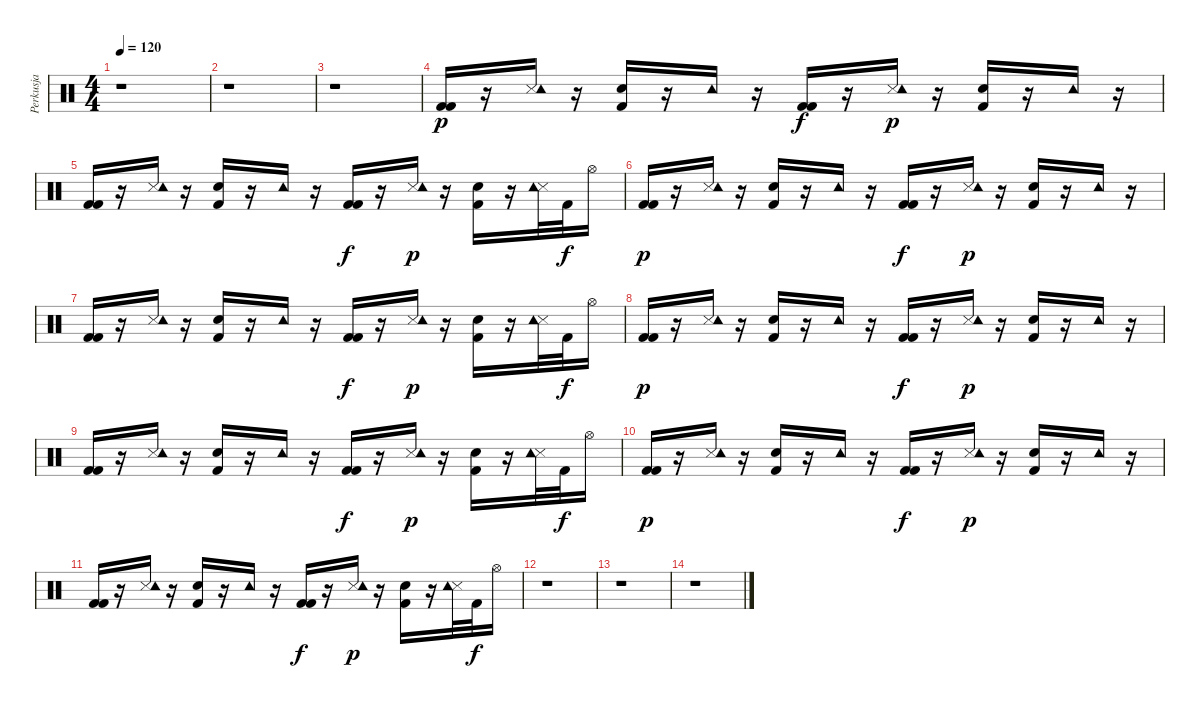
\track ("Perkusja" "Perkusja") {instrument percussion}
\staff {score}
\articulation defaults
\ts (4 4)
\tempo 120
\clef neutral
\ks c
r.1{dy f} |
r.1 |
r.1 |
("Kick (hit) 2" "Kick (hit) 2").16{dy p} r.16 ("Snare (side stick) 3" "Tambourine (hit)").16 r.16 ("Electric Snare (hit)" "Kick (hit) 2").16 r.16 "Tambourine (hit)".16 r.16 ("Kick (hit) 2" "Kick (hit) 2").16{dy f} r.16 ("Snare (side stick) 3" "Tambourine (hit)").16{dy p} r.16 ("Electric Snare (hit)" "Kick (hit) 2").16 r.16 "Tambourine (hit)".16 r.16 |
("Kick (hit) 2" "Kick (hit) 2").16 r.16 ("Snare (side stick) 3" "Tambourine (hit)").16 r.16 ("Electric Snare (hit)" "Kick (hit) 2").16 r.16 "Tambourine (hit)".16 r.16 ("Kick (hit) 2" "Kick (hit) 2").16{dy f} r.16 ("Snare (side stick) 3" "Tambourine (hit)").16{dy p} r.16 ("Electric Snare (hit)" "Kick (hit) 2").16 r.16 ("Snare (side stick) 3" "Tambourine (hit)").32 "Kick (hit) 2".32{dy f} "Hi-Hat (open)".16 |
("Kick (hit) 2" "Kick (hit) 2").16{dy p} r.16 ("Snare (side stick) 3" "Tambourine (hit)").16 r.16 ("Electric Snare (hit)" "Kick (hit) 2").16 r.16 "Tambourine (hit)".16 r.16 ("Kick (hit) 2" "Kick (hit) 2").16{dy f} r.16 ("Snare (side stick) 3" "Tambourine (hit)").16{dy p} r.16 ("Electric Snare (hit)" "Kick (hit) 2").16 r.16 "Tambourine (hit)".16 r.16 |
("Kick (hit) 2" "Kick (hit) 2").16 r.16 ("Snare (side stick) 3" "Tambourine (hit)").16 r.16 ("Electric Snare (hit)" "Kick (hit) 2").16 r.16 "Tambourine (hit)".16 r.16 ("Kick (hit) 2" "Kick (hit) 2").16{dy f} r.16 ("Snare (side stick) 3" "Tambourine (hit)").16{dy p} r.16 ("Electric Snare (hit)" "Kick (hit) 2").16 r.16 ("Snare (side stick) 3" "Tambourine (hit)").32 "Kick (hit) 2".32{dy f} "Hi-Hat (open)".16 |
("Kick (hit) 2" "Kick (hit) 2").16{dy p} r.16 ("Snare (side stick) 3" "Tambourine (hit)").16 r.16 ("Electric Snare (hit)" "Kick (hit) 2").16 r.16 "Tambourine (hit)".16 r.16 ("Kick (hit) 2" "Kick (hit) 2").16{dy f} r.16 ("Snare (side stick) 3" "Tambourine (hit)").16{dy p} r.16 ("Electric Snare (hit)" "Kick (hit) 2").16 r.16 "Tambourine (hit)".16 r.16 |
("Kick (hit) 2" "Kick (hit) 2").16 r.16 ("Snare (side stick) 3" "Tambourine (hit)").16 r.16 ("Electric Snare (hit)" "Kick (hit) 2").16 r.16 "Tambourine (hit)".16 r.16 ("Kick (hit) 2" "Kick (hit) 2").16{dy f} r.16 ("Snare (side stick) 3" "Tambourine (hit)").16{dy p} r.16 ("Electric Snare (hit)" "Kick (hit) 2").16 r.16 ("Snare (side stick) 3" "Tambourine (hit)").32 "Kick (hit) 2".32{dy f} "Hi-Hat (open)".16 |
("Kick (hit) 2" "Kick (hit) 2").16{dy p} r.16 ("Snare (side stick) 3" "Tambourine (hit)").16 r.16 ("Electric Snare (hit)" "Kick (hit) 2").16 r.16 "Tambourine (hit)".16 r.16 ("Kick (hit) 2" "Kick (hit) 2").16{dy f} r.16 ("Snare (side stick) 3" "Tambourine (hit)").16{dy p} r.16 ("Electric Snare (hit)" "Kick (hit) 2").16 r.16 "Tambourine (hit)".16 r.16 |
("Kick (hit) 2" "Kick (hit) 2").16 r.16 ("Snare (side stick) 3" "Tambourine (hit)").16 r.16 ("Electric Snare (hit)" "Kick (hit) 2").16 r.16 "Tambourine (hit)".16 r.16 ("Kick (hit) 2" "Kick (hit) 2").16{dy f} r.16 ("Snare (side stick) 3" "Tambourine (hit)").16{dy p} r.16 ("Electric Snare (hit)" "Kick (hit) 2").16 r.16 ("Snare (side stick) 3" "Tambourine (hit)").32 "Kick (hit) 2".32{dy f} "Hi-Hat (open)".16 |
r.1 |
r.1 |
r.1
